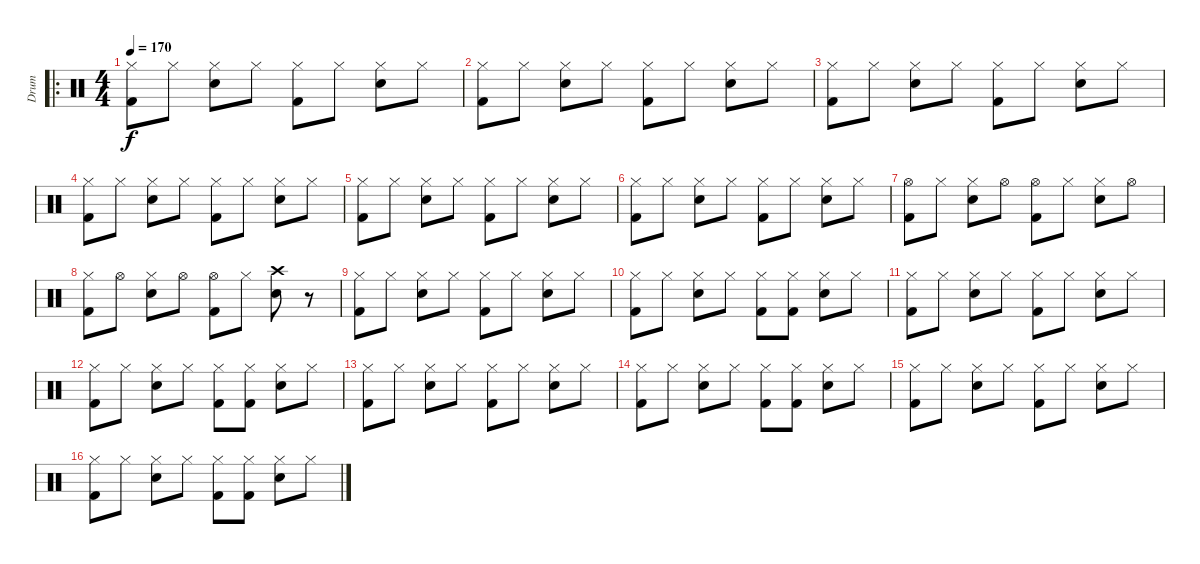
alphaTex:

\track ("Drum" "Drum") {instrument percussion}
\staff {score}
\articulation defaults
\ro
\ts (4 4)
\tempo 170
\clef neutral
\ks c
("Hi-Hat (closed)" "Kick (hit) 2").8{dy f} "Hi-Hat (closed)".8 ("Hi-Hat (closed)" "Snare (hit) 2").8 "Hi-Hat (closed)".8 ("Hi-Hat (closed)" "Kick (hit) 2").8 "Hi-Hat (closed)".8 ("Hi-Hat (closed)" "Snare (hit) 2").8 "Hi-Hat (closed)".8 |
("Hi-Hat (closed)" "Kick (hit) 2").8 "Hi-Hat (closed)".8 ("Hi-Hat (closed)" "Snare (hit) 2").8 "Hi-Hat (closed)".8 ("Hi-Hat (closed)" "Kick (hit) 2").8 "Hi-Hat (closed)".8 ("Hi-Hat (closed)" "Snare (hit) 2").8 "Hi-Hat (closed)".8 |
("Hi-Hat (closed)" "Kick (hit) 2").8 "Hi-Hat (closed)".8 ("Hi-Hat (closed)" "Snare (hit) 2").8 "Hi-Hat (closed)".8 ("Hi-Hat (closed)" "Kick (hit) 2").8 "Hi-Hat (closed)".8 ("Hi-Hat (closed)" "Snare (hit) 2").8 "Hi-Hat (closed)".8 |
("Hi-Hat (closed)" "Kick (hit) 2").8 "Hi-Hat (closed)".8 ("Hi-Hat (closed)" "Snare (hit) 2").8 "Hi-Hat (closed)".8 ("Hi-Hat (closed)" "Kick (hit) 2").8 "Hi-Hat (closed)".8 ("Hi-Hat (closed)" "Snare (hit) 2").8 "Hi-Hat (closed)".8 |
("Hi-Hat (closed)" "Kick (hit) 2").8 "Hi-Hat (closed)".8 ("Hi-Hat (closed)" "Snare (hit) 2").8 "Hi-Hat (closed)".8 ("Hi-Hat (closed)" "Kick (hit) 2").8 "Hi-Hat (closed)".8 ("Hi-Hat (closed)" "Snare (hit) 2").8 "Hi-Hat (closed)".8 |
("Hi-Hat (closed)" "Kick (hit) 2").8 "Hi-Hat (closed)".8 ("Hi-Hat (closed)" "Snare (hit) 2").8 "Hi-Hat (closed)".8 ("Hi-Hat (closed)" "Kick (hit) 2").8 "Hi-Hat (closed)".8 ("Hi-Hat (closed)" "Snare (hit) 2").8 "Hi-Hat (closed)".8 |
("Hi-Hat (open)" "Kick (hit) 2").8 "Hi-Hat (closed)".8 ("Hi-Hat (closed)" "Snare (hit) 2").8 "Hi-Hat (open)".8 ("Hi-Hat (open)" "Kick (hit) 2").8 "Hi-Hat (closed)".8 ("Hi-Hat (closed)" "Snare (hit) 2").8 "Hi-Hat (open)".8 |
("Hi-Hat (closed)" "Kick (hit) 2").8 "Hi-Hat (open)".8 ("Hi-Hat (closed)" "Snare (hit) 2").8 "Hi-Hat (open)".8 ("Hi-Hat (open)" "Kick (hit) 2").8 "Hi-Hat (closed)".8 ("Crash high (hit)" "Snare (hit) 2").8 r.8 |
("Hi-Hat (closed)" "Kick (hit) 2").8 "Hi-Hat (closed)".8 ("Hi-Hat (closed)" "Snare (hit) 2").8 "Hi-Hat (closed)".8 ("Hi-Hat (closed)" "Kick (hit) 2").8 "Hi-Hat (closed)".8 ("Hi-Hat (closed)" "Snare (hit) 2").8 "Hi-Hat (closed)".8 |
("Hi-Hat (closed)" "Kick (hit) 2").8 "Hi-Hat (closed)".8 ("Hi-Hat (closed)" "Snare (hit) 2").8 "Hi-Hat (closed)".8 ("Hi-Hat (closed)" "Kick (hit) 2").8 ("Hi-Hat (closed)" "Kick (hit) 2").8 ("Hi-Hat (closed)" "Snare (hit) 2").8 "Hi-Hat (closed)".8 |
("Hi-Hat (closed)" "Kick (hit) 2").8 "Hi-Hat (closed)".8 ("Hi-Hat (closed)" "Snare (hit) 2").8 "Hi-Hat (closed)".8 ("Hi-Hat (closed)" "Kick (hit) 2").8 "Hi-Hat (closed)".8 ("Hi-Hat (closed)" "Snare (hit) 2").8 "Hi-Hat (closed)".8 |
("Hi-Hat (closed)" "Kick (hit) 2").8 "Hi-Hat (closed)".8 ("Hi-Hat (closed)" "Snare (hit) 2").8 "Hi-Hat (closed)".8 ("Hi-Hat (closed)" "Kick (hit) 2").8 ("Hi-Hat (closed)" "Kick (hit) 2").8 ("Hi-Hat (closed)" "Snare (hit) 2").8 "Hi-Hat (closed)".8 |
("Hi-Hat (closed)" "Kick (hit) 2").8 "Hi-Hat (closed)".8 ("Hi-Hat (closed)" "Snare (hit) 2").8 "Hi-Hat (closed)".8 ("Hi-Hat (closed)" "Kick (hit) 2").8 "Hi-Hat (closed)".8 ("Hi-Hat (closed)" "Snare (hit) 2").8 "Hi-Hat (closed)".8 |
("Hi-Hat (closed)" "Kick (hit) 2").8 "Hi-Hat (closed)".8 ("Hi-Hat (closed)" "Snare (hit) 2").8 "Hi-Hat (closed)".8 ("Hi-Hat (closed)" "Kick (hit) 2").8 ("Hi-Hat (closed)" "Kick (hit) 2").8 ("Hi-Hat (closed)" "Snare (hit) 2").8 "Hi-Hat (closed)".8 |
("Hi-Hat (closed)" "Kick (hit) 2").8 "Hi-Hat (closed)".8 ("Hi-Hat (closed)" "Snare (hit) 2").8 "Hi-Hat (closed)".8 ("Hi-Hat (closed)" "Kick (hit) 2").8 "Hi-Hat (closed)".8 ("Hi-Hat (closed)" "Snare (hit) 2").8 "Hi-Hat (closed)".8 |
("Hi-Hat (closed)" "Kick (hit) 2").8 "Hi-Hat (closed)".8 ("Hi-Hat (closed)" "Snare (hit) 2").8 "Hi-Hat (closed)".8 ("Hi-Hat (closed)" "Kick (hit) 2").8 ("Hi-Hat (closed)" "Kick (hit) 2").8 ("Hi-Hat (closed)" "Snare (hit) 2").8 "Hi-Hat (closed)".8
